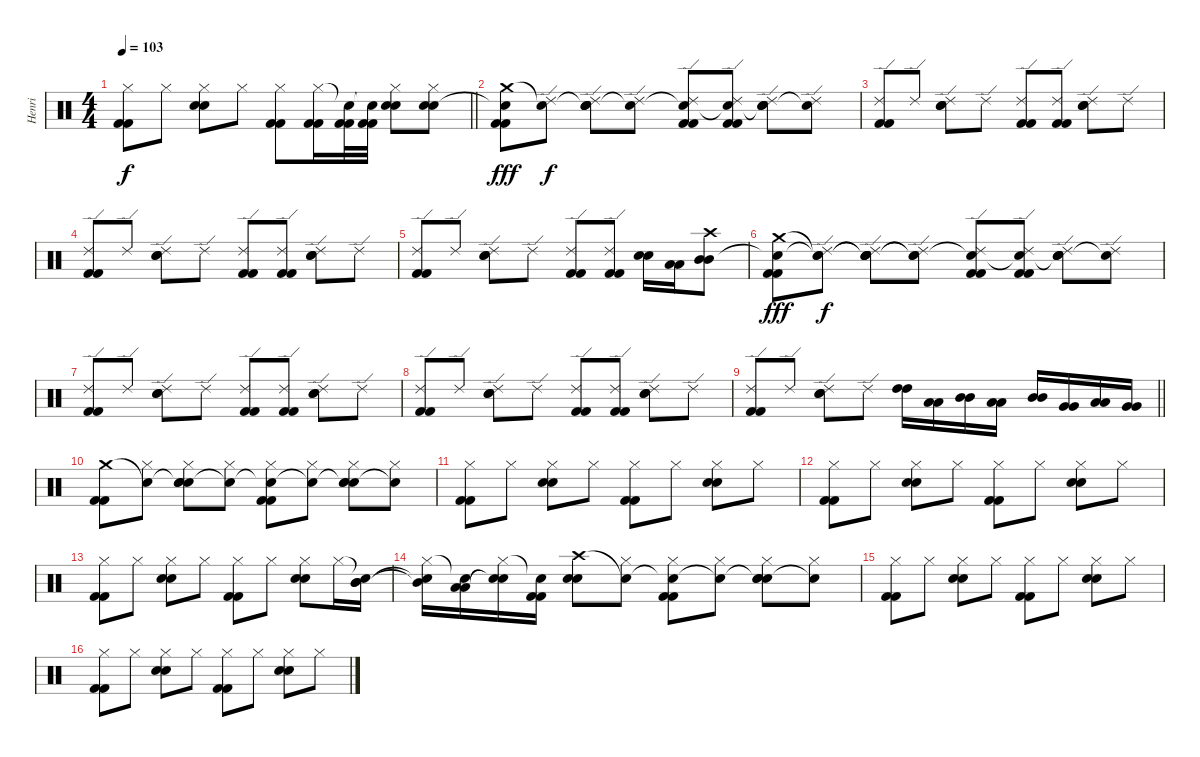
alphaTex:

\track ("Henri" "Henri") {instrument percussion}
\staff {score}
\articulation defaults
\ts (4 4)
\tempo 103
\clef neutral
\barLineRight lightlight
\ks c
("Hi-Hat (closed)" "Kick (hit) 2" "Kick (hit) 2").8{dy f} "Hi-Hat (closed)".8 ("Hi-Hat (closed)" "Snare (hit) 2" "Snare (hit) 2").8 "Hi-Hat (closed)".8 ("Hi-Hat (closed)" "Kick (hit) 2" "Kick (hit) 2").8 ("Hi-Hat (closed)" "Kick (hit) 2" "Kick (hit) 2").16 ("Snare (hit)"{t} "Kick (hit) 2" "Kick (hit) 2").32 ("Snare (hit)"{t} "Kick (hit) 2" "Kick (hit) 2").32 ("Hi-Hat (closed)" "Snare (hit) 2" "Snare (hit) 2").8 ("Hi-Hat (closed)" "Snare (hit) 2" "Snare (hit) 2").8 |
("Crash medium (hit)" "Snare (hit)"{t} "Kick (hit) 2" "Kick (hit) 2").8{dy fff} ("Snare (hit)"{t} "Ride (edge) 2").8{dy f} ("Snare (hit)"{t} "Ride (edge) 2" "Snare (hit) 2" "Snare (hit) 2").8 ("Snare (hit)"{t} "Ride (edge) 2").8 ("Snare (hit)"{t} "Ride (edge) 2" "Kick (hit) 2" "Kick (hit) 2").8 ("Snare (hit)"{t} "Ride (edge) 2" "Kick (hit) 2" "Kick (hit) 2").8 ("Snare (hit)"{t} "Ride (edge) 2" "Snare (hit) 2" "Snare (hit) 2").8 ("Snare (hit)"{t} "Ride (edge) 2").8 |
("Ride (edge) 2" "Kick (hit) 2" "Kick (hit) 2").8 "Ride (edge) 2".8 ("Ride (edge) 2" "Snare (hit) 2" "Snare (hit) 2").8 "Ride (edge) 2".8 ("Ride (edge) 2" "Kick (hit) 2" "Kick (hit) 2").8 ("Ride (edge) 2" "Kick (hit) 2" "Kick (hit) 2").8 ("Ride (edge) 2" "Snare (hit) 2" "Snare (hit) 2").8 "Ride (edge) 2".8 |
("Ride (edge) 2" "Kick (hit) 2" "Kick (hit) 2").8 "Ride (edge) 2".8 ("Ride (edge) 2" "Snare (hit) 2" "Snare (hit) 2").8 "Ride (edge) 2".8 ("Ride (edge) 2" "Kick (hit) 2" "Kick (hit) 2").8 ("Ride (edge) 2" "Kick (hit) 2" "Kick (hit) 2").8 ("Ride (edge) 2" "Snare (hit) 2" "Snare (hit) 2").8 "Ride (edge) 2".8 |
("Ride (edge) 2" "Kick (hit) 2" "Kick (hit) 2").8 "Ride (edge) 2".8 ("Ride (edge) 2" "Snare (hit) 2" "Snare (hit) 2").8 "Ride (edge) 2".8 ("Ride (edge) 2" "Kick (hit) 2" "Kick (hit) 2").8 ("Ride (edge) 2" "Kick (hit) 2" "Kick (hit) 2").8 ("Snare (hit) 2" "Snare (hit) 2").16 ("Low Tom (hit)" "Low Tom (hit)").16 ("Crash high (hit)" "Mid Tom (hit)" "Mid Tom (hit)").8 |
("Crash medium (hit)" "Snare (hit)"{t} "Kick (hit) 2" "Kick (hit) 2").8{dy fff} ("Snare (hit)"{t} "Snare (hit)"{t} "Ride (edge) 2").8{dy f} ("Snare (hit)"{t} "Snare (hit)"{t} "Ride (edge) 2" "Snare (hit) 2" "Snare (hit) 2").8 ("Snare (hit)"{t} "Snare (hit)"{t} "Ride (edge) 2").8 ("Snare (hit)"{t} "Ride (edge) 2" "Kick (hit) 2" "Kick (hit) 2").8 ("Snare (hit)"{t} "Ride (edge) 2" "Kick (hit) 2" "Kick (hit) 2").8 ("Snare (hit)"{t} "Ride (edge) 2" "Snare (hit) 2" "Snare (hit) 2").8 ("Snare (hit)"{t} "Ride (edge) 2").8 |
("Ride (edge) 2" "Kick (hit) 2" "Kick (hit) 2").8 "Ride (edge) 2".8 ("Ride (edge) 2" "Snare (hit) 2" "Snare (hit) 2").8 "Ride (edge) 2".8 ("Ride (edge) 2" "Kick (hit) 2" "Kick (hit) 2").8 ("Ride (edge) 2" "Kick (hit) 2" "Kick (hit) 2").8 ("Ride (edge) 2" "Snare (hit) 2" "Snare (hit) 2").8 "Ride (edge) 2".8 |
("Ride (edge) 2" "Kick (hit) 2" "Kick (hit) 2").8 "Ride (edge) 2".8 ("Ride (edge) 2" "Snare (hit) 2" "Snare (hit) 2").8 "Ride (edge) 2".8 ("Ride (edge) 2" "Kick (hit) 2" "Kick (hit) 2").8 ("Ride (edge) 2" "Kick (hit) 2" "Kick (hit) 2").8 ("Ride (edge) 2" "Snare (hit) 2" "Snare (hit) 2").8 "Ride (edge) 2".8 |
\barLineRight lightlight
("Ride (edge) 2" "Kick (hit) 2" "Kick (hit) 2").8 "Ride (edge) 2".8 ("Ride (edge) 2" "Snare (hit) 2" "Snare (hit) 2").8 "Ride (edge) 2".8 ("High Tom (hit)" "High Tom (hit)").16 ("Low Tom (hit)" "Low Tom (hit)").16 ("Mid Tom (hit)" "Mid Tom (hit)").16 ("Low Tom (hit)" "Low Tom (hit)").16 ("Mid Tom (hit)" "Mid Tom (hit)").16 ("Very Low Tom (hit)" "Very Low Tom (hit)").16 ("Low Tom (hit)" "Low Tom (hit)").16 ("Very Low Tom (hit)" "Very Low Tom (hit)").16 |
("Crash medium (hit)" "Kick (hit) 2" "Kick (hit) 2").8 ("Snare (hit)"{t} "Hi-Hat (closed)").8 ("Snare (hit)"{t} "Hi-Hat (closed)" "Snare (hit) 2" "Snare (hit) 2").8 ("Snare (hit)"{t} "Hi-Hat (closed)").8 ("Snare (hit)"{t} "Hi-Hat (closed)" "Kick (hit) 2" "Kick (hit) 2").8 ("Snare (hit)"{t} "Hi-Hat (closed)").8 ("Snare (hit)"{t} "Hi-Hat (closed)" "Snare (hit) 2" "Snare (hit) 2").8 ("Snare (hit)"{t} "Hi-Hat (closed)").8 |
("Hi-Hat (closed)" "Kick (hit) 2" "Kick (hit) 2").8 "Hi-Hat (closed)".8 ("Hi-Hat (closed)" "Snare (hit) 2" "Snare (hit) 2").8 "Hi-Hat (closed)".8 ("Hi-Hat (closed)" "Kick (hit) 2" "Kick (hit) 2").8 "Hi-Hat (closed)".8 ("Hi-Hat (closed)" "Snare (hit) 2" "Snare (hit) 2").8 "Hi-Hat (closed)".8 |
("Hi-Hat (closed)" "Kick (hit) 2" "Kick (hit) 2").8 "Hi-Hat (closed)".8 ("Hi-Hat (closed)" "Snare (hit) 2" "Snare (hit) 2").8 "Hi-Hat (closed)".8 ("Hi-Hat (closed)" "Kick (hit) 2" "Kick (hit) 2").8 "Hi-Hat (closed)".8 ("Hi-Hat (closed)" "Snare (hit) 2" "Snare (hit) 2").8 "Hi-Hat (closed)".8 |
("Hi-Hat (closed)" "Kick (hit) 2" "Kick (hit) 2").8 "Hi-Hat (closed)".8 ("Hi-Hat (closed)" "Snare (hit) 2" "Snare (hit) 2").8 "Hi-Hat (closed)".8 ("Hi-Hat (closed)" "Kick (hit) 2" "Kick (hit) 2").8 "Hi-Hat (closed)".8 ("Hi-Hat (closed)" "Snare (hit) 2" "Snare (hit) 2").8 "Hi-Hat (closed)".16 ("Snare (hit)"{t} "Mid Tom (hit)" "Mid Tom (hit)").16 |
("Hi-Hat (closed)" "Snare (hit)"{t} "Mid Tom (hit)"{t}).16 ("Snare (hit)"{t} "Low Tom (hit)" "Low Tom (hit)").16 ("Hi-Hat (closed)" "Snare (hit)"{t} "Snare (hit)"{t}).16 ("Snare (hit)"{t} "Kick (hit) 2" "Kick (hit) 2").16 ("Crash high (hit)" "Snare (hit) 2" "Snare (hit) 2").8 ("Snare (hit)"{t} "Hi-Hat (closed)").8 ("Snare (hit)"{t} "Hi-Hat (closed)" "Kick (hit) 2" "Kick (hit) 2").8 ("Snare (hit)"{t} "Hi-Hat (closed)").8 ("Snare (hit)"{t} "Hi-Hat (closed)" "Snare (hit) 2" "Snare (hit) 2").8 ("Snare (hit)"{t} "Hi-Hat (closed)").8 |
("Hi-Hat (closed)" "Kick (hit) 2" "Kick (hit) 2").8 "Hi-Hat (closed)".8 ("Hi-Hat (closed)" "Snare (hit) 2" "Snare (hit) 2").8 "Hi-Hat (closed)".8 ("Hi-Hat (closed)" "Kick (hit) 2" "Kick (hit) 2").8 "Hi-Hat (closed)".8 ("Hi-Hat (closed)" "Snare (hit) 2" "Snare (hit) 2").8 "Hi-Hat (closed)".8 |
("Hi-Hat (closed)" "Kick (hit) 2" "Kick (hit) 2").8 "Hi-Hat (closed)".8 ("Hi-Hat (closed)" "Snare (hit) 2" "Snare (hit) 2").8 "Hi-Hat (closed)".8 ("Hi-Hat (closed)" "Kick (hit) 2" "Kick (hit) 2").8 "Hi-Hat (closed)".8 ("Hi-Hat (closed)" "Snare (hit) 2" "Snare (hit) 2").8 "Hi-Hat (closed)".8
